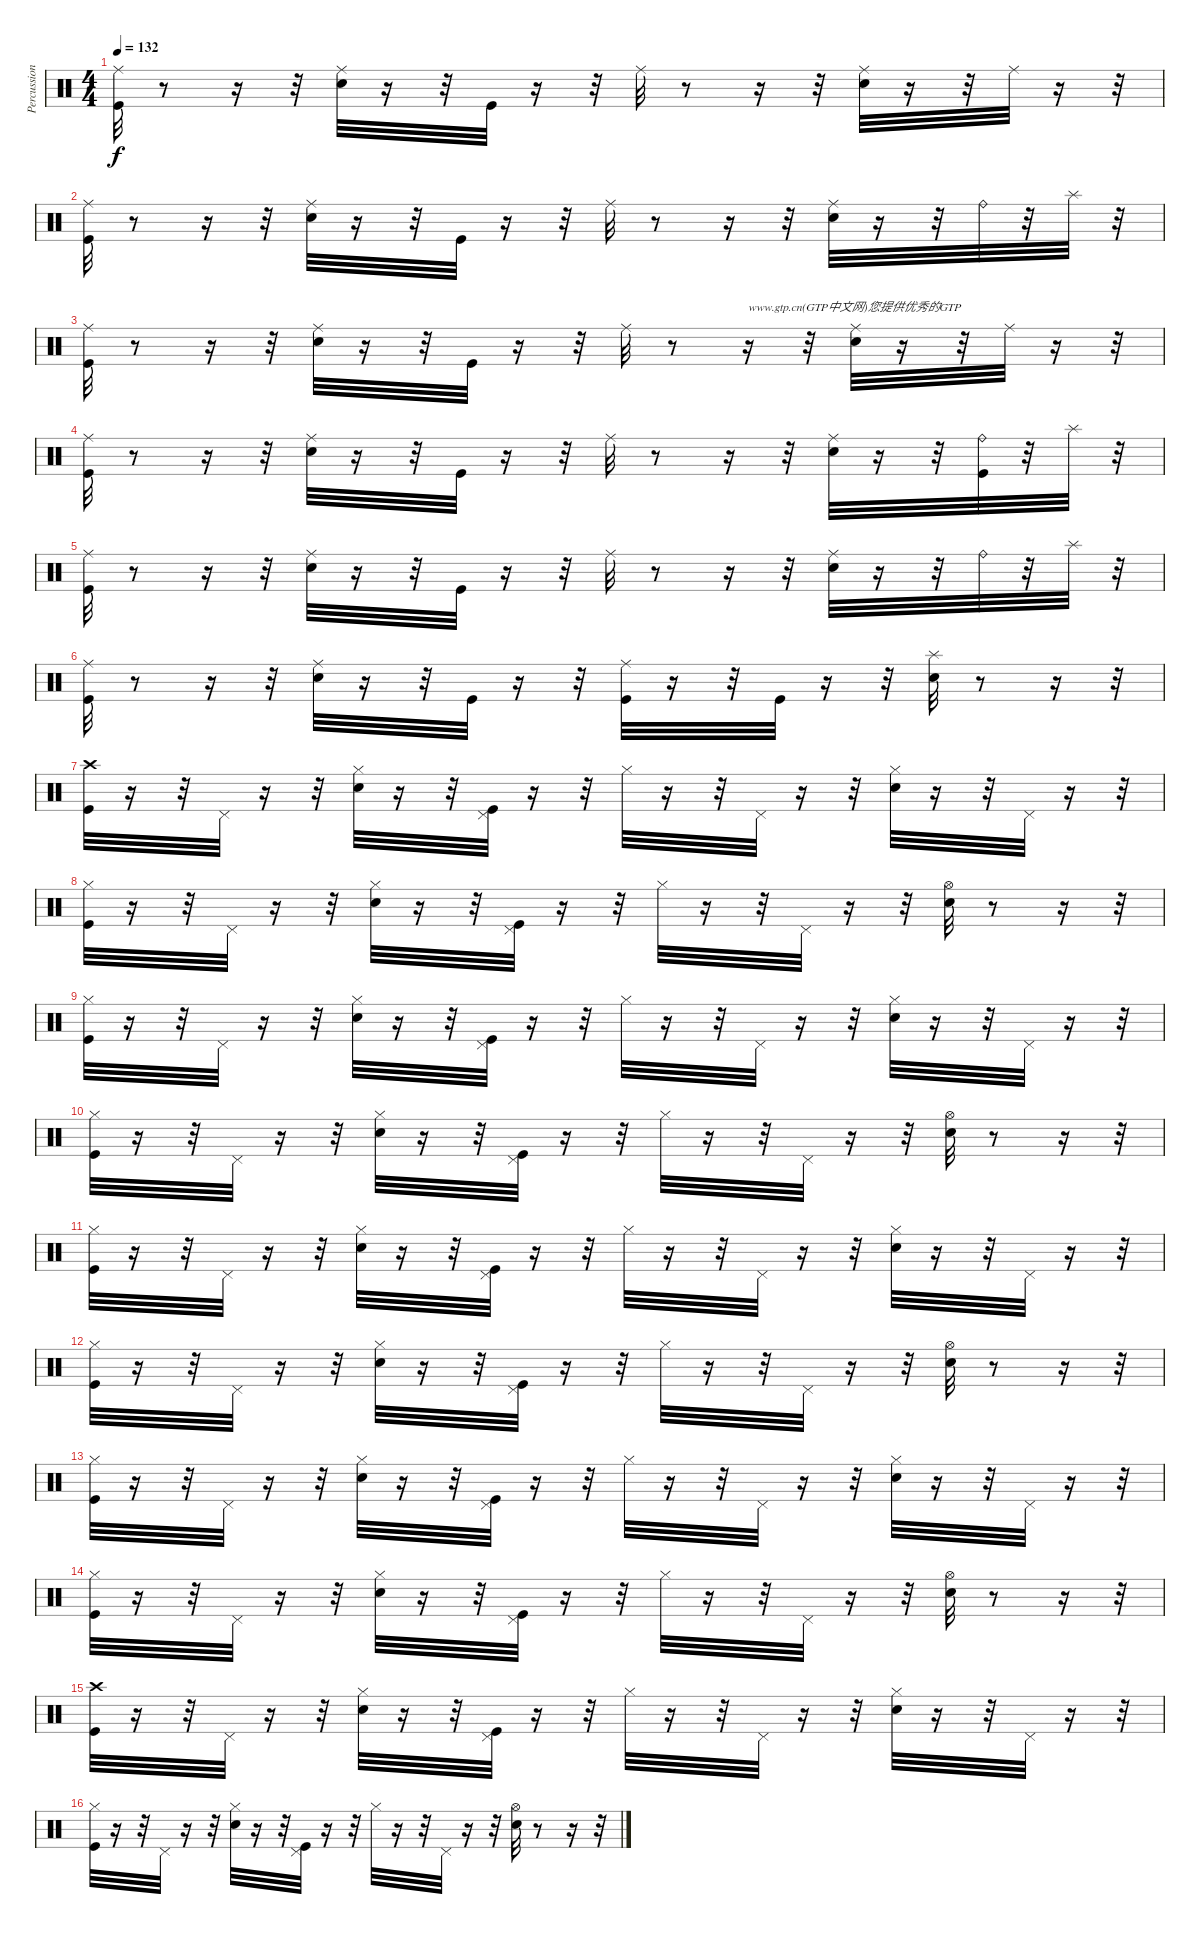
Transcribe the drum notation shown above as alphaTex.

\track ("Percussions" "Percussion") {instrument percussion}
\staff {score}
\articulation defaults
\ts (4 4)
\tempo 132
\clef neutral
\ks c
("Ride (middle)" "Kick (hit)").32{dy f} r.8 r.16 r.32 ("Ride (middle)" "Electric Snare (hit)").32 r.16 r.32 "Kick (hit)".32 r.16 r.32 "Ride (middle)".32 r.8 r.16 r.32 ("Ride (middle)" "Electric Snare (hit)").32 r.16 r.32 "Ride (middle)".32 r.16 r.32 |
("Kick (hit)" "Ride (middle)").32 r.8 r.16 r.32 ("Electric Snare (hit)" "Ride (middle)").32 r.16 r.32 "Kick (hit)".32 r.16 r.32 "Ride (middle)".32 r.8 r.16 r.32 ("Electric Snare (hit)" "Ride (middle)").32 r.16 r.32 "Ride (bell)".32 r.32 "Splash (hit)".32 r.32 |
("Ride (middle)" "Kick (hit)").32 r.8 r.16 r.32 ("Ride (middle)" "Electric Snare (hit)").32 r.16 r.32 "Kick (hit)".32 r.16 r.32 "Ride (middle)".32 r.8 r.16{txt "www.gtp.cn(GTP中文网)您提供优秀的GTP"} r.32 ("Ride (middle)" "Electric Snare (hit)").32 r.16 r.32 "Ride (middle)".32 r.16 r.32 |
("Kick (hit)" "Ride (middle)").32 r.8 r.16 r.32 ("Electric Snare (hit)" "Ride (middle)").32 r.16 r.32 "Kick (hit)".32 r.16 r.32 "Ride (middle)".32 r.8 r.16 r.32 ("Electric Snare (hit)" "Ride (middle)").32 r.16 r.32 ("Kick (hit)" "Ride (bell)").32 r.32 "Splash (hit)".32 r.32 |
("Kick (hit)" "Ride (middle)").32 r.8 r.16 r.32 ("Electric Snare (hit)" "Ride (middle)").32 r.16 r.32 "Kick (hit)".32 r.16 r.32 "Ride (middle)".32 r.8 r.16 r.32 ("Electric Snare (hit)" "Ride (middle)").32 r.16 r.32 "Ride (bell)".32 r.32 "Splash (hit)".32 r.32 |
("Kick (hit)" "Ride (middle)").32 r.8 r.16 r.32 ("Electric Snare (hit)" "Ride (middle)").32 r.16 r.32 "Kick (hit)".32 r.16 r.32 ("Kick (hit)" "Ride (middle)").32 r.16 r.32 "Kick (hit)".32 r.16 r.32 ("Splash (hit)" "Electric Snare (hit)").32 r.8 r.16 r.32 |
("Crash high (hit)" "Kick (hit)").32 r.16 r.32 "Pedal Hi-Hat (hit)".32 r.16 r.32 ("Hi-Hat (closed)" "Electric Snare (hit)").32 r.16 r.32 ("Pedal Hi-Hat (hit)" "Kick (hit)").32 r.16 r.32 "Hi-Hat (closed)".32 r.16 r.32 "Pedal Hi-Hat (hit)".32 r.16 r.32 ("Hi-Hat (closed)" "Electric Snare (hit)").32 r.16 r.32 "Pedal Hi-Hat (hit)".32 r.16 r.32 |
("Hi-Hat (closed)" "Kick (hit)").32 r.16 r.32 "Pedal Hi-Hat (hit)".32 r.16 r.32 ("Hi-Hat (closed)" "Electric Snare (hit)").32 r.16 r.32 ("Pedal Hi-Hat (hit)" "Kick (hit)").32 r.16 r.32 "Hi-Hat (closed)".32 r.16 r.32 "Pedal Hi-Hat (hit)".32 r.16 r.32 ("Hi-Hat (open)" "Electric Snare (hit)").32 r.8 r.16 r.32 |
("Hi-Hat (closed)" "Kick (hit)").32 r.16 r.32 "Pedal Hi-Hat (hit)".32 r.16 r.32 ("Hi-Hat (closed)" "Electric Snare (hit)").32 r.16 r.32 ("Pedal Hi-Hat (hit)" "Kick (hit)").32 r.16 r.32 "Hi-Hat (closed)".32 r.16 r.32 "Pedal Hi-Hat (hit)".32 r.16 r.32 ("Hi-Hat (closed)" "Electric Snare (hit)").32 r.16 r.32 "Pedal Hi-Hat (hit)".32 r.16 r.32 |
("Hi-Hat (closed)" "Kick (hit)").32 r.16 r.32 "Pedal Hi-Hat (hit)".32 r.16 r.32 ("Hi-Hat (closed)" "Electric Snare (hit)").32 r.16 r.32 ("Pedal Hi-Hat (hit)" "Kick (hit)").32 r.16 r.32 "Hi-Hat (closed)".32 r.16 r.32 "Pedal Hi-Hat (hit)".32 r.16 r.32 ("Hi-Hat (open)" "Electric Snare (hit)").32 r.8 r.16 r.32 |
("Hi-Hat (closed)" "Kick (hit)").32 r.16 r.32 "Pedal Hi-Hat (hit)".32 r.16 r.32 ("Hi-Hat (closed)" "Electric Snare (hit)").32 r.16 r.32 ("Pedal Hi-Hat (hit)" "Kick (hit)").32 r.16 r.32 "Hi-Hat (closed)".32 r.16 r.32 "Pedal Hi-Hat (hit)".32 r.16 r.32 ("Hi-Hat (closed)" "Electric Snare (hit)").32 r.16 r.32 "Pedal Hi-Hat (hit)".32 r.16 r.32 |
("Hi-Hat (closed)" "Kick (hit)").32 r.16 r.32 "Pedal Hi-Hat (hit)".32 r.16 r.32 ("Hi-Hat (closed)" "Electric Snare (hit)").32 r.16 r.32 ("Pedal Hi-Hat (hit)" "Kick (hit)").32 r.16 r.32 "Hi-Hat (closed)".32 r.16 r.32 "Pedal Hi-Hat (hit)".32 r.16 r.32 ("Hi-Hat (open)" "Electric Snare (hit)").32 r.8 r.16 r.32 |
("Hi-Hat (closed)" "Kick (hit)").32 r.16 r.32 "Pedal Hi-Hat (hit)".32 r.16 r.32 ("Hi-Hat (closed)" "Electric Snare (hit)").32 r.16 r.32 ("Pedal Hi-Hat (hit)" "Kick (hit)").32 r.16 r.32 "Hi-Hat (closed)".32 r.16 r.32 "Pedal Hi-Hat (hit)".32 r.16 r.32 ("Hi-Hat (closed)" "Electric Snare (hit)").32 r.16 r.32 "Pedal Hi-Hat (hit)".32 r.16 r.32 |
("Hi-Hat (closed)" "Kick (hit)").32 r.16 r.32 "Pedal Hi-Hat (hit)".32 r.16 r.32 ("Hi-Hat (closed)" "Electric Snare (hit)").32 r.16 r.32 ("Pedal Hi-Hat (hit)" "Kick (hit)").32 r.16 r.32 "Hi-Hat (closed)".32 r.16 r.32 "Pedal Hi-Hat (hit)".32 r.16 r.32 ("Hi-Hat (open)" "Electric Snare (hit)").32 r.8 r.16 r.32 |
("Crash high (hit)" "Kick (hit)").32 r.16 r.32 "Pedal Hi-Hat (hit)".32 r.16 r.32 ("Hi-Hat (closed)" "Electric Snare (hit)").32 r.16 r.32 ("Pedal Hi-Hat (hit)" "Kick (hit)").32 r.16 r.32 "Hi-Hat (closed)".32 r.16 r.32 "Pedal Hi-Hat (hit)".32 r.16 r.32 ("Hi-Hat (closed)" "Electric Snare (hit)").32 r.16 r.32 "Pedal Hi-Hat (hit)".32 r.16 r.32 |
("Hi-Hat (closed)" "Kick (hit)").32 r.16 r.32 "Pedal Hi-Hat (hit)".32 r.16 r.32 ("Hi-Hat (closed)" "Electric Snare (hit)").32 r.16 r.32 ("Pedal Hi-Hat (hit)" "Kick (hit)").32 r.16 r.32 "Hi-Hat (closed)".32 r.16 r.32 "Pedal Hi-Hat (hit)".32 r.16 r.32 ("Hi-Hat (open)" "Electric Snare (hit)").32 r.8 r.16 r.32
